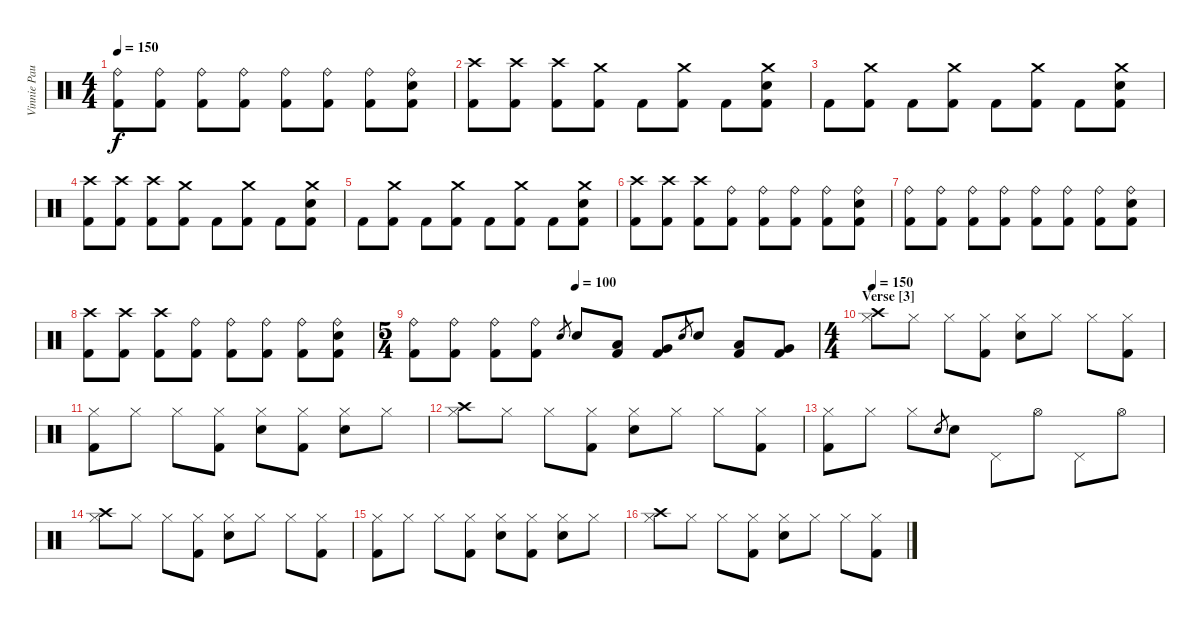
\track ("Vinnie Paul" "Vinnie Pau") {instrument percussion}
\staff {score}
\articulation defaults
\ts (4 4)
\tempo 150
\clef neutral
\ks c
("Ride (bell)" "Kick (hit) 2").8{dy f} ("Ride (bell)" "Kick (hit) 2").8 ("Ride (bell)" "Kick (hit) 2").8 ("Ride (bell)" "Kick (hit) 2").8 ("Ride (bell)" "Kick (hit) 2").8 ("Ride (bell)" "Kick (hit) 2").8 ("Ride (bell)" "Kick (hit) 2").8 ("Ride (bell)" "Snare (hit) 2" "Kick (hit) 2").8 |
("Crash high (hit)" "Kick (hit) 2").8 ("Crash high (hit)" "Kick (hit) 2").8 ("Crash high (hit)" "Kick (hit) 2").8 ("Crash medium (hit)" "Kick (hit) 2").8 "Kick (hit) 2".8 ("Crash medium (hit)" "Kick (hit) 2").8 "Kick (hit) 2".8 ("Crash medium (hit)" "Snare (hit) 2" "Kick (hit) 2").8 |
"Kick (hit) 2".8 ("Crash medium (hit)" "Kick (hit) 2").8 "Kick (hit) 2".8 ("Crash medium (hit)" "Kick (hit) 2").8 "Kick (hit) 2".8 ("Crash medium (hit)" "Kick (hit) 2").8 "Kick (hit) 2".8 ("Crash medium (hit)" "Snare (hit) 2" "Kick (hit) 2").8 |
("Crash high (hit)" "Kick (hit) 2").8 ("Crash high (hit)" "Kick (hit) 2").8 ("Crash high (hit)" "Kick (hit) 2").8 ("Crash medium (hit)" "Kick (hit) 2").8 "Kick (hit) 2".8 ("Crash medium (hit)" "Kick (hit) 2").8 "Kick (hit) 2".8 ("Crash medium (hit)" "Snare (hit) 2" "Kick (hit) 2").8 |
"Kick (hit) 2".8 ("Crash medium (hit)" "Kick (hit) 2").8 "Kick (hit) 2".8 ("Crash medium (hit)" "Kick (hit) 2").8 "Kick (hit) 2".8 ("Crash medium (hit)" "Kick (hit) 2").8 "Kick (hit) 2".8 ("Crash medium (hit)" "Snare (hit) 2" "Kick (hit) 2").8 |
("Crash high (hit)" "Kick (hit) 2").8 ("Crash high (hit)" "Kick (hit) 2").8 ("Crash high (hit)" "Kick (hit) 2").8 ("Ride (bell)" "Kick (hit) 2").8 ("Ride (bell)" "Kick (hit) 2").8 ("Ride (bell)" "Kick (hit) 2").8 ("Ride (bell)" "Kick (hit) 2").8 ("Ride (bell)" "Snare (hit) 2" "Kick (hit) 2").8 |
("Ride (bell)" "Kick (hit) 2").8 ("Ride (bell)" "Kick (hit) 2").8 ("Ride (bell)" "Kick (hit) 2").8 ("Ride (bell)" "Kick (hit) 2").8 ("Ride (bell)" "Kick (hit) 2").8 ("Ride (bell)" "Kick (hit) 2").8 ("Ride (bell)" "Kick (hit) 2").8 ("Ride (bell)" "Snare (hit) 2" "Kick (hit) 2").8 |
("Crash high (hit)" "Kick (hit) 2").8 ("Crash high (hit)" "Kick (hit) 2").8 ("Crash high (hit)" "Kick (hit) 2").8 ("Ride (bell)" "Kick (hit) 2").8 ("Ride (bell)" "Kick (hit) 2").8 ("Ride (bell)" "Kick (hit) 2").8 ("Ride (bell)" "Kick (hit) 2").8 ("Ride (bell)" "Snare (hit) 2" "Kick (hit) 2").8 |
\ts (5 4)
\tempo (100 0.4)
("Ride (bell)" "Kick (hit) 2").8 ("Ride (bell)" "Kick (hit) 2").8 ("Ride (bell)" "Kick (hit) 2").8 ("Ride (bell)" "Kick (hit) 2").8 "Snare (hit) 2".8{gr} "Snare (hit) 2".8 ("Low Tom (hit)" "Kick (hit) 2").8 ("Very Low Tom (hit)" "Kick (hit) 2").8 "Snare (hit) 2".8{gr} "Snare (hit) 2".8 ("Low Tom (hit)" "Kick (hit) 2").8 ("Very Low Tom (hit)" "Kick (hit) 2").8 |
\ts (4 4)
\section ("" "Verse [3]")
\tempo 150
("Crash high (hit)" "Hi-Hat (closed)").8 "Hi-Hat (closed)".8 "Hi-Hat (closed)".8 ("Hi-Hat (closed)" "Kick (hit) 2").8 ("Snare (hit) 2" "Hi-Hat (closed)").8 "Hi-Hat (closed)".8 "Hi-Hat (closed)".8 ("Hi-Hat (closed)" "Kick (hit) 2").8 |
("Hi-Hat (closed)" "Kick (hit) 2").8 "Hi-Hat (closed)".8 "Hi-Hat (closed)".8 ("Hi-Hat (closed)" "Kick (hit) 2").8 ("Snare (hit) 2" "Hi-Hat (closed)").8 ("Hi-Hat (closed)" "Kick (hit) 2").8 ("Snare (hit) 2" "Hi-Hat (closed)").8 "Hi-Hat (closed)".8 |
("Crash high (hit)" "Hi-Hat (closed)").8 "Hi-Hat (closed)".8 "Hi-Hat (closed)".8 ("Hi-Hat (closed)" "Kick (hit) 2").8 ("Snare (hit) 2" "Hi-Hat (closed)").8 "Hi-Hat (closed)".8 "Hi-Hat (closed)".8 ("Hi-Hat (closed)" "Kick (hit) 2").8 |
("Hi-Hat (closed)" "Kick (hit) 2").8 "Hi-Hat (closed)".8 "Hi-Hat (closed)".8 "Snare (hit) 2".8{gr} "Snare (hit) 2".8 "Pedal Hi-Hat (hit)".8 "Hi-Hat (open)".8 "Pedal Hi-Hat (hit)".8 "Hi-Hat (open)".8 |
("Crash high (hit)" "Hi-Hat (closed)").8 "Hi-Hat (closed)".8 "Hi-Hat (closed)".8 ("Hi-Hat (closed)" "Kick (hit) 2").8 ("Snare (hit) 2" "Hi-Hat (closed)").8 "Hi-Hat (closed)".8 "Hi-Hat (closed)".8 ("Hi-Hat (closed)" "Kick (hit) 2").8 |
("Hi-Hat (closed)" "Kick (hit) 2").8 "Hi-Hat (closed)".8 "Hi-Hat (closed)".8 ("Hi-Hat (closed)" "Kick (hit) 2").8 ("Snare (hit) 2" "Hi-Hat (closed)").8 ("Hi-Hat (closed)" "Kick (hit) 2").8 ("Snare (hit) 2" "Hi-Hat (closed)").8 "Hi-Hat (closed)".8 |
("Crash high (hit)" "Hi-Hat (closed)").8 "Hi-Hat (closed)".8 "Hi-Hat (closed)".8 ("Hi-Hat (closed)" "Kick (hit) 2").8 ("Snare (hit) 2" "Hi-Hat (closed)").8 "Hi-Hat (closed)".8 "Hi-Hat (closed)".8 ("Hi-Hat (closed)" "Kick (hit) 2").8
